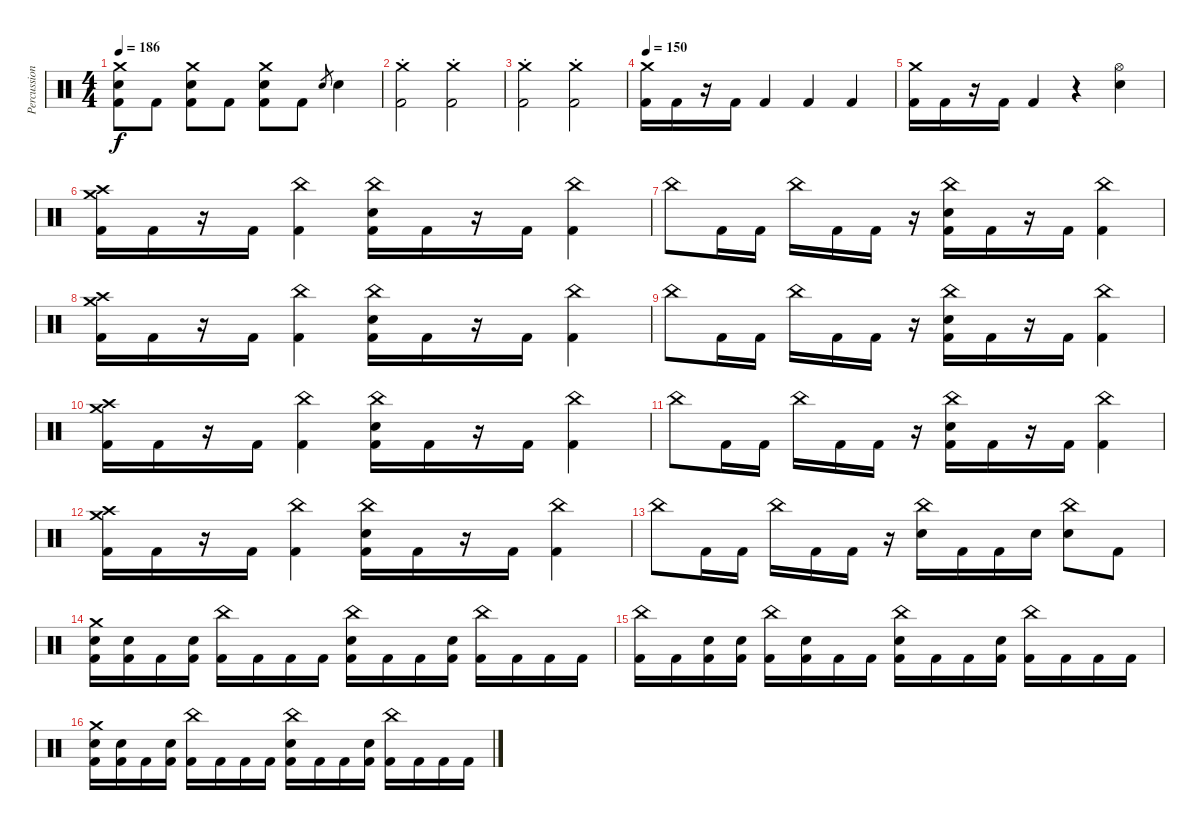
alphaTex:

\track ("Percussion" "Percussion") {instrument percussion}
\staff {score}
\articulation defaults
\ts (4 4)
\tempo 186
\clef neutral
\ks c
("Crash medium (hit)" "Electric Snare (hit)" "Kick (hit) 2").8{dy f} "Kick (hit) 2".8 ("Crash medium (hit)" "Electric Snare (hit)" "Kick (hit) 2").8 "Kick (hit) 2".8 ("Crash medium (hit)" "Electric Snare (hit)" "Kick (hit) 2").8 "Kick (hit) 2".8 "Electric Snare (hit)".8{gr} "Electric Snare (hit)".4 |
("Crash medium (hit)"{st} "Kick (hit) 2").2 ("Crash medium (hit)"{st} "Kick (hit) 2").2 |
("Crash medium (hit)"{st} "Kick (hit) 2").2 ("Crash medium (hit)"{st} "Kick (hit) 2").2 |
\tempo 150
("Crash medium (hit)" "Kick (hit) 2").16 "Kick (hit) 2".16 r.16 "Kick (hit) 2".16 "Kick (hit) 2".4 "Kick (hit) 2".4 "Kick (hit) 2".4 |
("Crash medium (hit)" "Kick (hit) 2").16 "Kick (hit) 2".16 r.16 "Kick (hit) 2".16 "Kick (hit) 2".4 r.4 ("Hi-Hat (open)" "Electric Snare (hit)").4 |
("Crash medium (hit)" "Crash high (hit)" "Kick (hit) 2").16 "Kick (hit) 2".16 r.16 "Kick (hit) 2".16 ("China (hit)" "Kick (hit) 2").4 ("China (hit)" "Electric Snare (hit)" "Kick (hit) 2").16 "Kick (hit) 2".16 r.16 "Kick (hit) 2".16 ("China (hit)" "Kick (hit) 2").4 |
"China (hit)".8 "Kick (hit) 2".16 "Kick (hit) 2".16 "China (hit)".16 "Kick (hit) 2".16 "Kick (hit) 2".16 r.16 ("China (hit)" "Electric Snare (hit)" "Kick (hit) 2").16 "Kick (hit) 2".16 r.16 "Kick (hit) 2".16 ("China (hit)" "Kick (hit) 2").4 |
("Crash medium (hit)" "Crash high (hit)" "Kick (hit) 2").16 "Kick (hit) 2".16 r.16 "Kick (hit) 2".16 ("China (hit)" "Kick (hit) 2").4 ("China (hit)" "Electric Snare (hit)" "Kick (hit) 2").16 "Kick (hit) 2".16 r.16 "Kick (hit) 2".16 ("China (hit)" "Kick (hit) 2").4 |
"China (hit)".8 "Kick (hit) 2".16 "Kick (hit) 2".16 "China (hit)".16 "Kick (hit) 2".16 "Kick (hit) 2".16 r.16 ("China (hit)" "Electric Snare (hit)" "Kick (hit) 2").16 "Kick (hit) 2".16 r.16 "Kick (hit) 2".16 ("China (hit)" "Kick (hit) 2").4 |
("Crash medium (hit)" "Crash high (hit)" "Kick (hit) 2").16 "Kick (hit) 2".16 r.16 "Kick (hit) 2".16 ("China (hit)" "Kick (hit) 2").4 ("China (hit)" "Electric Snare (hit)" "Kick (hit) 2").16 "Kick (hit) 2".16 r.16 "Kick (hit) 2".16 ("China (hit)" "Kick (hit) 2").4 |
"China (hit)".8 "Kick (hit) 2".16 "Kick (hit) 2".16 "China (hit)".16 "Kick (hit) 2".16 "Kick (hit) 2".16 r.16 ("China (hit)" "Electric Snare (hit)" "Kick (hit) 2").16 "Kick (hit) 2".16 r.16 "Kick (hit) 2".16 ("China (hit)" "Kick (hit) 2").4 |
("Crash medium (hit)" "Crash high (hit)" "Kick (hit) 2").16 "Kick (hit) 2".16 r.16 "Kick (hit) 2".16 ("China (hit)" "Kick (hit) 2").4 ("China (hit)" "Electric Snare (hit)" "Kick (hit) 2").16 "Kick (hit) 2".16 r.16 "Kick (hit) 2".16 ("China (hit)" "Kick (hit) 2").4 |
"China (hit)".8 "Kick (hit) 2".16 "Kick (hit) 2".16 "China (hit)".16 "Kick (hit) 2".16 "Kick (hit) 2".16 r.16 ("China (hit)" "Electric Snare (hit)").16 "Kick (hit) 2".16 "Kick (hit) 2".16 "Electric Snare (hit)".16 ("China (hit)" "Electric Snare (hit)").8 "Kick (hit) 2".8 |
("Crash medium (hit)" "Electric Snare (hit)" "Kick (hit) 2").16 ("Electric Snare (hit)" "Kick (hit) 2").16 "Kick (hit) 2".16 ("Electric Snare (hit)" "Kick (hit) 2").16 ("China (hit)" "Kick (hit) 2").16 "Kick (hit) 2".16 "Kick (hit) 2".16 "Kick (hit) 2".16 ("China (hit)" "Electric Snare (hit)" "Kick (hit) 2").16 "Kick (hit) 2".16 "Kick (hit) 2".16 ("Electric Snare (hit)" "Kick (hit) 2").16 ("China (hit)" "Kick (hit) 2").16 "Kick (hit) 2".16 "Kick (hit) 2".16 "Kick (hit) 2".16 |
("China (hit)" "Kick (hit) 2").16 "Kick (hit) 2".16 ("Electric Snare (hit)" "Kick (hit) 2").16 ("Electric Snare (hit)" "Kick (hit) 2").16 ("China (hit)" "Kick (hit) 2").16 ("Electric Snare (hit)" "Kick (hit) 2").16 "Kick (hit) 2".16 "Kick (hit) 2".16 ("China (hit)" "Electric Snare (hit)" "Kick (hit) 2").16 "Kick (hit) 2".16 "Kick (hit) 2".16 ("Electric Snare (hit)" "Kick (hit) 2").16 ("China (hit)" "Kick (hit) 2").16 "Kick (hit) 2".16 "Kick (hit) 2".16 "Kick (hit) 2".16 |
("Crash medium (hit)" "Electric Snare (hit)" "Kick (hit) 2").16 ("Electric Snare (hit)" "Kick (hit) 2").16 "Kick (hit) 2".16 ("Electric Snare (hit)" "Kick (hit) 2").16 ("China (hit)" "Kick (hit) 2").16 "Kick (hit) 2".16 "Kick (hit) 2".16 "Kick (hit) 2".16 ("China (hit)" "Electric Snare (hit)" "Kick (hit) 2").16 "Kick (hit) 2".16 "Kick (hit) 2".16 ("Electric Snare (hit)" "Kick (hit) 2").16 ("China (hit)" "Kick (hit) 2").16 "Kick (hit) 2".16 "Kick (hit) 2".16 "Kick (hit) 2".16
